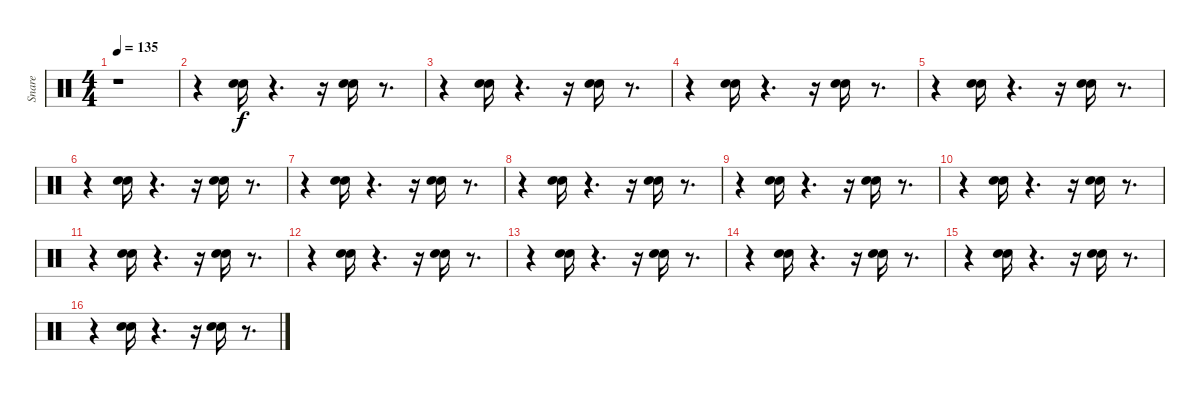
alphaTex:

\track ("Snare" "Snare") {instrument percussion}
\staff {score}
\articulation defaults
\ts (4 4)
\tempo 135
\clef neutral
\ks c
r.1{dy f} |
r.4 ("Hand Clap (hit)" "Snare (hit) 2").16 r.4{d} r.16 ("Hand Clap (hit)" "Snare (hit) 2").16 r.8{d} |
r.4 ("Snare (hit) 2" "Hand Clap (hit)").16 r.4{d} r.16 ("Snare (hit) 2" "Hand Clap (hit)").16 r.8{d} |
r.4 ("Hand Clap (hit)" "Snare (hit) 2").16 r.4{d} r.16 ("Hand Clap (hit)" "Snare (hit) 2").16 r.8{d} |
r.4 ("Hand Clap (hit)" "Snare (hit) 2").16 r.4{d} r.16 ("Hand Clap (hit)" "Snare (hit) 2").16 r.8{d} |
r.4 ("Hand Clap (hit)" "Snare (hit) 2").16 r.4{d} r.16 ("Hand Clap (hit)" "Snare (hit) 2").16 r.8{d} |
r.4 ("Snare (hit) 2" "Hand Clap (hit)").16 r.4{d} r.16 ("Snare (hit) 2" "Hand Clap (hit)").16 r.8{d} |
r.4 ("Hand Clap (hit)" "Snare (hit) 2").16 r.4{d} r.16 ("Hand Clap (hit)" "Snare (hit) 2").16 r.8{d} |
r.4 ("Hand Clap (hit)" "Snare (hit) 2").16 r.4{d} r.16 ("Hand Clap (hit)" "Snare (hit) 2").16 r.8{d} |
r.4 ("Hand Clap (hit)" "Snare (hit) 2").16 r.4{d} r.16 ("Hand Clap (hit)" "Snare (hit) 2").16 r.8{d} |
r.4 ("Snare (hit) 2" "Hand Clap (hit)").16 r.4{d} r.16 ("Snare (hit) 2" "Hand Clap (hit)").16 r.8{d} |
r.4 ("Hand Clap (hit)" "Snare (hit) 2").16 r.4{d} r.16 ("Hand Clap (hit)" "Snare (hit) 2").16 r.8{d} |
r.4 ("Hand Clap (hit)" "Snare (hit) 2").16 r.4{d} r.16 ("Hand Clap (hit)" "Snare (hit) 2").16 r.8{d} |
r.4 ("Hand Clap (hit)" "Snare (hit) 2").16 r.4{d} r.16 ("Hand Clap (hit)" "Snare (hit) 2").16 r.8{d} |
r.4 ("Snare (hit) 2" "Hand Clap (hit)").16 r.4{d} r.16 ("Snare (hit) 2" "Hand Clap (hit)").16 r.8{d} |
r.4 ("Hand Clap (hit)" "Snare (hit) 2").16 r.4{d} r.16 ("Hand Clap (hit)" "Snare (hit) 2").16 r.8{d}
